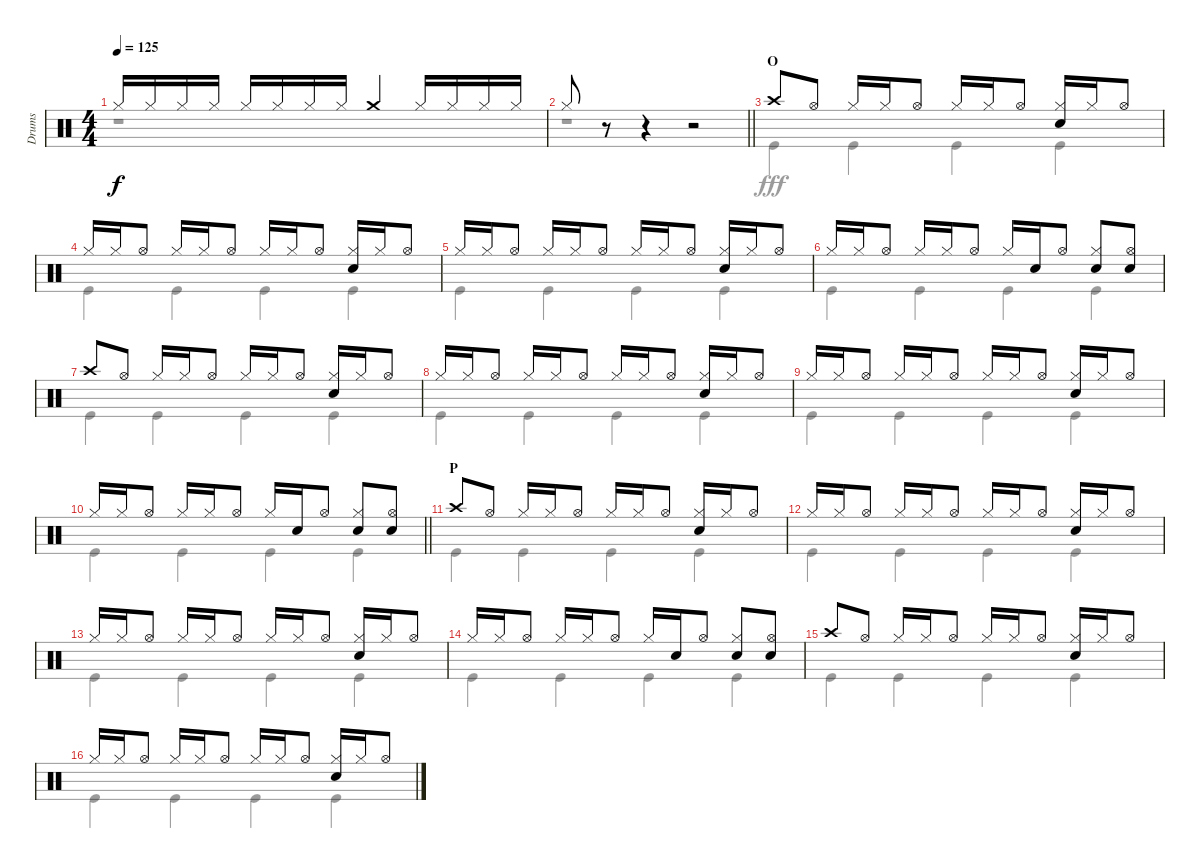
\track ("Drums" "Drums") {instrument percussion}
\staff {score}
\articulation defaults
\voice
\ts (4 4)
\tempo 125
\clef neutral
\ks c "Hi-Hat (closed)".16{dy f} "Hi-Hat (closed)".16 "Hi-Hat (closed)".16 "Hi-Hat (closed)".16 "Hi-Hat (closed)".16 "Hi-Hat (closed)".16 "Hi-Hat (closed)".16 "Hi-Hat (closed)".16 "Crash medium (hit)".4 "Hi-Hat (closed)".16 "Hi-Hat (closed)".16 "Hi-Hat (closed)".16 "Hi-Hat (closed)".16
|
\barLineRight lightlight "Hi-Hat (closed)".8
r.8 r.4 r.2 |
\section ("" "O")
"Crash high (hit)".8 "Hi-Hat (open)".8 "Hi-Hat (closed)".16 "Hi-Hat (closed)".16 "Hi-Hat (open)".8 "Hi-Hat (closed)".16 "Hi-Hat (closed)".16 "Hi-Hat (open)".8 ("Hi-Hat (closed)" "Snare (hit) 2").16 "Hi-Hat (closed)".16 "Hi-Hat (open)".8 |
"Hi-Hat (closed)".16 "Hi-Hat (closed)".16 "Hi-Hat (open)".8 "Hi-Hat (closed)".16 "Hi-Hat (closed)".16 "Hi-Hat (open)".8 "Hi-Hat (closed)".16 "Hi-Hat (closed)".16 "Hi-Hat (open)".8 ("Hi-Hat (closed)" "Snare (hit) 2").16 "Hi-Hat (closed)".16 "Hi-Hat (open)".8 |
"Hi-Hat (closed)".16 "Hi-Hat (closed)".16 "Hi-Hat (open)".8 "Hi-Hat (closed)".16 "Hi-Hat (closed)".16 "Hi-Hat (open)".8 "Hi-Hat (closed)".16 "Hi-Hat (closed)".16 "Hi-Hat (open)".8 ("Hi-Hat (closed)" "Snare (hit) 2").16 "Hi-Hat (closed)".16 "Hi-Hat (open)".8 |
"Hi-Hat (closed)".16 "Hi-Hat (closed)".16 "Hi-Hat (open)".8 "Hi-Hat (closed)".16 "Hi-Hat (closed)".16 "Hi-Hat (open)".8 "Hi-Hat (closed)".16 "Snare (hit) 2".16 "Hi-Hat (open)".8 ("Hi-Hat (closed)" "Snare (hit) 2").8 ("Hi-Hat (open)" "Snare (hit) 2").8 |
"Crash high (hit)".8 "Hi-Hat (open)".8 "Hi-Hat (closed)".16 "Hi-Hat (closed)".16 "Hi-Hat (open)".8 "Hi-Hat (closed)".16 "Hi-Hat (closed)".16 "Hi-Hat (open)".8 ("Hi-Hat (closed)" "Snare (hit) 2").16 "Hi-Hat (closed)".16 "Hi-Hat (open)".8 |
"Hi-Hat (closed)".16 "Hi-Hat (closed)".16 "Hi-Hat (open)".8 "Hi-Hat (closed)".16 "Hi-Hat (closed)".16 "Hi-Hat (open)".8 "Hi-Hat (closed)".16 "Hi-Hat (closed)".16 "Hi-Hat (open)".8 ("Hi-Hat (closed)" "Snare (hit) 2").16 "Hi-Hat (closed)".16 "Hi-Hat (open)".8 |
"Hi-Hat (closed)".16 "Hi-Hat (closed)".16 "Hi-Hat (open)".8 "Hi-Hat (closed)".16 "Hi-Hat (closed)".16 "Hi-Hat (open)".8 "Hi-Hat (closed)".16 "Hi-Hat (closed)".16 "Hi-Hat (open)".8 ("Hi-Hat (closed)" "Snare (hit) 2").16 "Hi-Hat (closed)".16 "Hi-Hat (open)".8 |
\barLineRight lightlight "Hi-Hat (closed)".16 "Hi-Hat (closed)".16 "Hi-Hat (open)".8 "Hi-Hat (closed)".16 "Hi-Hat (closed)".16 "Hi-Hat (open)".8 "Hi-Hat (closed)".16 "Snare (hit) 2".16 "Hi-Hat (open)".8
("Hi-Hat (closed)" "Snare (hit) 2").8 ("Hi-Hat (open)" "Snare (hit) 2").8 |
\section ("" "P")
"Crash high (hit)".8 "Hi-Hat (open)".8 "Hi-Hat (closed)".16 "Hi-Hat (closed)".16 "Hi-Hat (open)".8 "Hi-Hat (closed)".16 "Hi-Hat (closed)".16 "Hi-Hat (open)".8 ("Hi-Hat (closed)" "Snare (hit) 2").16 "Hi-Hat (closed)".16 "Hi-Hat (open)".8 |
"Hi-Hat (closed)".16 "Hi-Hat (closed)".16 "Hi-Hat (open)".8 "Hi-Hat (closed)".16 "Hi-Hat (closed)".16 "Hi-Hat (open)".8 "Hi-Hat (closed)".16 "Hi-Hat (closed)".16 "Hi-Hat (open)".8 ("Hi-Hat (closed)" "Snare (hit) 2").16 "Hi-Hat (closed)".16 "Hi-Hat (open)".8 |
"Hi-Hat (closed)".16 "Hi-Hat (closed)".16 "Hi-Hat (open)".8 "Hi-Hat (closed)".16 "Hi-Hat (closed)".16 "Hi-Hat (open)".8 "Hi-Hat (closed)".16 "Hi-Hat (closed)".16 "Hi-Hat (open)".8 ("Hi-Hat (closed)" "Snare (hit) 2").16 "Hi-Hat (closed)".16 "Hi-Hat (open)".8 |
"Hi-Hat (closed)".16 "Hi-Hat (closed)".16 "Hi-Hat (open)".8 "Hi-Hat (closed)".16 "Hi-Hat (closed)".16 "Hi-Hat (open)".8 "Hi-Hat (closed)".16 "Snare (hit) 2".16 "Hi-Hat (open)".8 ("Hi-Hat (closed)" "Snare (hit) 2").8 ("Hi-Hat (open)" "Snare (hit) 2").8 |
"Crash high (hit)".8 "Hi-Hat (open)".8 "Hi-Hat (closed)".16 "Hi-Hat (closed)".16 "Hi-Hat (open)".8 "Hi-Hat (closed)".16 "Hi-Hat (closed)".16 "Hi-Hat (open)".8 ("Hi-Hat (closed)" "Snare (hit) 2").16 "Hi-Hat (closed)".16 "Hi-Hat (open)".8 |
"Hi-Hat (closed)".16 "Hi-Hat (closed)".16 "Hi-Hat (open)".8 "Hi-Hat (closed)".16 "Hi-Hat (closed)".16 "Hi-Hat (open)".8 "Hi-Hat (closed)".16 "Hi-Hat (closed)".16 "Hi-Hat (open)".8 ("Hi-Hat (closed)" "Snare (hit) 2").16 "Hi-Hat (closed)".16 "Hi-Hat (open)".8
\voice
\clef neutral
\ottava regular
\simile none
\ks c
r.1{dy fff} |
\barLineRight lightlight
r.1 |
"Kick (hit)".4 "Kick (hit)".4 "Kick (hit)".4 "Kick (hit)".4 |
"Kick (hit)".4 "Kick (hit)".4 "Kick (hit)".4 "Kick (hit)".4 |
"Kick (hit)".4 "Kick (hit)".4 "Kick (hit)".4 "Kick (hit)".4 |
"Kick (hit)".4 "Kick (hit)".4 "Kick (hit)".4 "Kick (hit)".4 |
"Kick (hit)".4 "Kick (hit)".4 "Kick (hit)".4 "Kick (hit)".4 |
"Kick (hit)".4 "Kick (hit)".4 "Kick (hit)".4 "Kick (hit)".4 |
"Kick (hit)".4 "Kick (hit)".4 "Kick (hit)".4 "Kick (hit)".4 |
\barLineRight lightlight "Kick (hit)".4 "Kick (hit)".4 "Kick (hit)".4 "Kick (hit)".4
|
"Kick (hit)".4 "Kick (hit)".4 "Kick (hit)".4 "Kick (hit)".4 |
"Kick (hit)".4 "Kick (hit)".4 "Kick (hit)".4 "Kick (hit)".4 |
"Kick (hit)".4 "Kick (hit)".4 "Kick (hit)".4 "Kick (hit)".4 |
"Kick (hit)".4 "Kick (hit)".4 "Kick (hit)".4 "Kick (hit)".4 |
"Kick (hit)".4 "Kick (hit)".4 "Kick (hit)".4 "Kick (hit)".4 |
"Kick (hit)".4 "Kick (hit)".4 "Kick (hit)".4 "Kick (hit)".4
